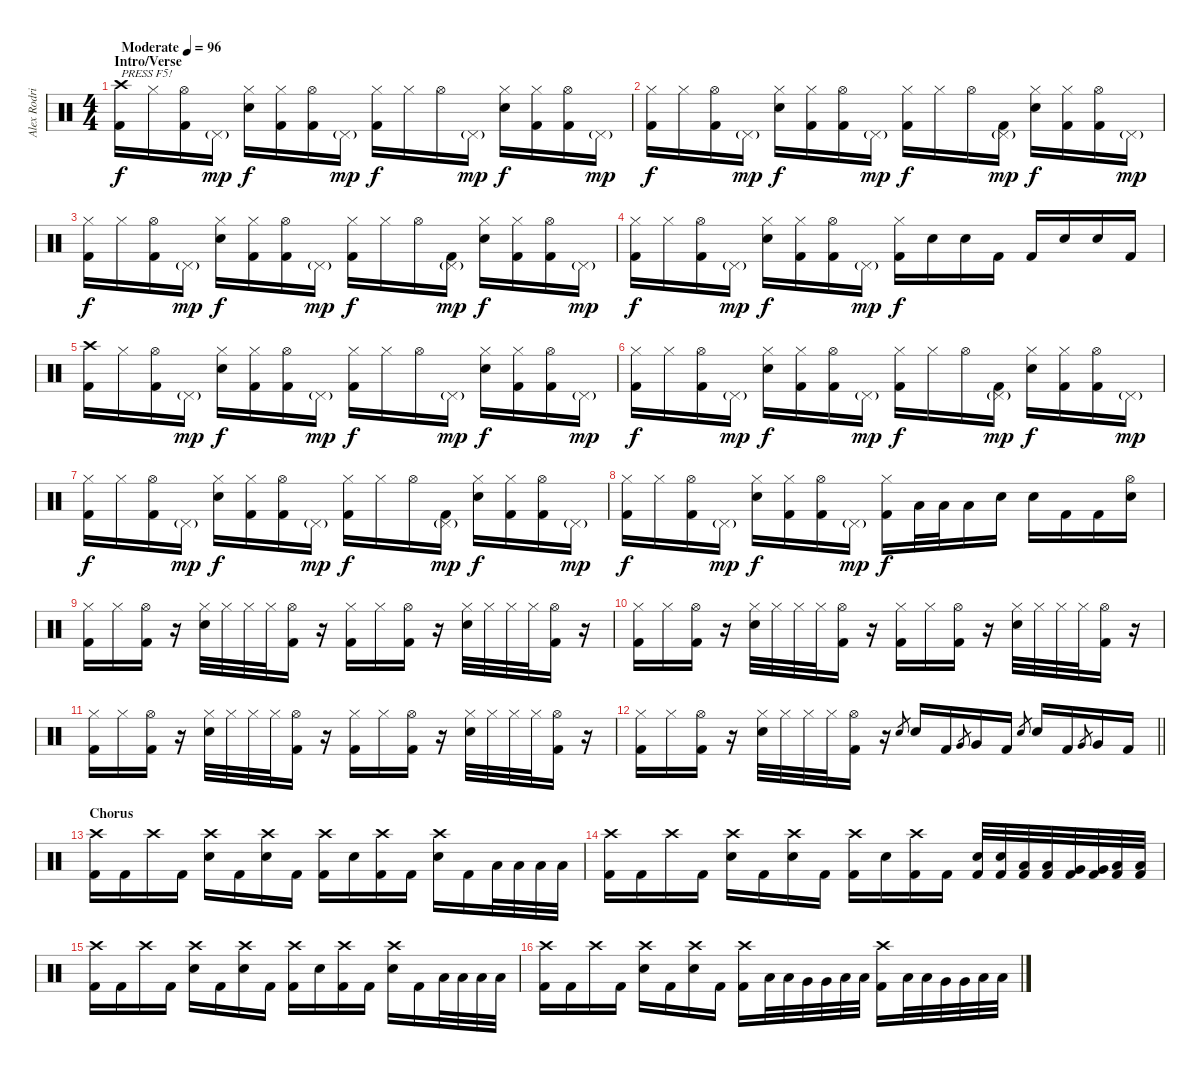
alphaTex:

\track ("Alex Rodriguez" "Alex Rodri") {instrument percussion}
\staff {score}
\articulation defaults
\ts (4 4)
\section ("" "Intro/Verse")
\tempo (96 "Moderate")
\clef neutral
\ks c
("Crash high (hit)" "Kick (hit) 2").16{txt "PRESS F5!" dy f} "Hi-Hat (closed)".16 ("Hi-Hat (open)" "Kick (hit) 2").16 "Pedal Hi-Hat (hit)"{g}.16{dy mp} ("Hi-Hat (closed)" "Electric Snare (hit)").16{dy f} ("Hi-Hat (closed)" "Kick (hit) 2").16 ("Hi-Hat (open)" "Kick (hit) 2").16 "Pedal Hi-Hat (hit)"{g}.16{dy mp} ("Hi-Hat (closed)" "Kick (hit) 2").16{dy f} "Hi-Hat (closed)".16 "Hi-Hat (open)".16 "Pedal Hi-Hat (hit)"{g}.16{dy mp} ("Hi-Hat (closed)" "Electric Snare (hit)").16{dy f} ("Hi-Hat (closed)" "Kick (hit) 2").16 ("Hi-Hat (open)" "Kick (hit) 2").16 "Pedal Hi-Hat (hit)"{g}.16{dy mp} |
("Hi-Hat (closed)" "Kick (hit) 2").16{dy f} "Hi-Hat (closed)".16 ("Hi-Hat (open)" "Kick (hit) 2").16 "Pedal Hi-Hat (hit)"{g}.16{dy mp} ("Hi-Hat (closed)" "Electric Snare (hit)").16{dy f} ("Hi-Hat (closed)" "Kick (hit) 2").16 ("Hi-Hat (open)" "Kick (hit) 2").16 "Pedal Hi-Hat (hit)"{g}.16{dy mp} ("Hi-Hat (closed)" "Kick (hit) 2").16{dy f} "Hi-Hat (closed)".16 "Hi-Hat (open)".16 ("Pedal Hi-Hat (hit)"{g} "Kick (hit) 2").16{dy mp} ("Hi-Hat (closed)" "Electric Snare (hit)").16{dy f} ("Hi-Hat (closed)" "Kick (hit) 2").16 ("Hi-Hat (open)" "Kick (hit) 2").16 "Pedal Hi-Hat (hit)"{g}.16{dy mp} |
("Hi-Hat (closed)" "Kick (hit) 2").16{dy f} "Hi-Hat (closed)".16 ("Hi-Hat (open)" "Kick (hit) 2").16 "Pedal Hi-Hat (hit)"{g}.16{dy mp} ("Hi-Hat (closed)" "Electric Snare (hit)").16{dy f} ("Hi-Hat (closed)" "Kick (hit) 2").16 ("Hi-Hat (open)" "Kick (hit) 2").16 "Pedal Hi-Hat (hit)"{g}.16{dy mp} ("Hi-Hat (closed)" "Kick (hit) 2").16{dy f} "Hi-Hat (closed)".16 "Hi-Hat (open)".16 ("Pedal Hi-Hat (hit)"{g} "Kick (hit) 2").16{dy mp} ("Hi-Hat (closed)" "Electric Snare (hit)").16{dy f} ("Hi-Hat (closed)" "Kick (hit) 2").16 ("Hi-Hat (open)" "Kick (hit) 2").16 "Pedal Hi-Hat (hit)"{g}.16{dy mp} |
("Hi-Hat (closed)" "Kick (hit) 2").16{dy f} "Hi-Hat (closed)".16 ("Hi-Hat (open)" "Kick (hit) 2").16 "Pedal Hi-Hat (hit)"{g}.16{dy mp} ("Hi-Hat (closed)" "Electric Snare (hit)").16{dy f} ("Hi-Hat (closed)" "Kick (hit) 2").16 ("Hi-Hat (open)" "Kick (hit) 2").16 "Pedal Hi-Hat (hit)"{g}.16{dy mp} ("Hi-Hat (closed)" "Kick (hit) 2").16{dy f} "Electric Snare (hit)".16 "Electric Snare (hit)".16 "Kick (hit) 2".16 "Kick (hit) 2".16 "Electric Snare (hit)".16 "Electric Snare (hit)".16 "Kick (hit) 2".16 |
("Crash high (hit)" "Kick (hit) 2").16 "Hi-Hat (closed)".16 ("Hi-Hat (open)" "Kick (hit) 2").16 "Pedal Hi-Hat (hit)"{g}.16{dy mp} ("Hi-Hat (closed)" "Electric Snare (hit)").16{dy f} ("Hi-Hat (closed)" "Kick (hit) 2").16 ("Hi-Hat (open)" "Kick (hit) 2").16 "Pedal Hi-Hat (hit)"{g}.16{dy mp} ("Hi-Hat (closed)" "Kick (hit) 2").16{dy f} "Hi-Hat (closed)".16 "Hi-Hat (open)".16 "Pedal Hi-Hat (hit)"{g}.16{dy mp} ("Hi-Hat (closed)" "Electric Snare (hit)").16{dy f} ("Hi-Hat (closed)" "Kick (hit) 2").16 ("Hi-Hat (open)" "Kick (hit) 2").16 "Pedal Hi-Hat (hit)"{g}.16{dy mp} |
("Hi-Hat (closed)" "Kick (hit) 2").16{dy f} "Hi-Hat (closed)".16 ("Hi-Hat (open)" "Kick (hit) 2").16 "Pedal Hi-Hat (hit)"{g}.16{dy mp} ("Hi-Hat (closed)" "Electric Snare (hit)").16{dy f} ("Hi-Hat (closed)" "Kick (hit) 2").16 ("Hi-Hat (open)" "Kick (hit) 2").16 "Pedal Hi-Hat (hit)"{g}.16{dy mp} ("Hi-Hat (closed)" "Kick (hit) 2").16{dy f} "Hi-Hat (closed)".16 "Hi-Hat (open)".16 ("Pedal Hi-Hat (hit)"{g} "Kick (hit) 2").16{dy mp} ("Hi-Hat (closed)" "Electric Snare (hit)").16{dy f} ("Hi-Hat (closed)" "Kick (hit) 2").16 ("Hi-Hat (open)" "Kick (hit) 2").16 "Pedal Hi-Hat (hit)"{g}.16{dy mp} |
("Hi-Hat (closed)" "Kick (hit) 2").16{dy f} "Hi-Hat (closed)".16 ("Hi-Hat (open)" "Kick (hit) 2").16 "Pedal Hi-Hat (hit)"{g}.16{dy mp} ("Hi-Hat (closed)" "Electric Snare (hit)").16{dy f} ("Hi-Hat (closed)" "Kick (hit) 2").16 ("Hi-Hat (open)" "Kick (hit) 2").16 "Pedal Hi-Hat (hit)"{g}.16{dy mp} ("Hi-Hat (closed)" "Kick (hit) 2").16{dy f} "Hi-Hat (closed)".16 "Hi-Hat (open)".16 ("Pedal Hi-Hat (hit)"{g} "Kick (hit) 2").16{dy mp} ("Hi-Hat (closed)" "Electric Snare (hit)").16{dy f} ("Hi-Hat (closed)" "Kick (hit) 2").16 ("Hi-Hat (open)" "Kick (hit) 2").16 "Pedal Hi-Hat (hit)"{g}.16{dy mp} |
("Hi-Hat (closed)" "Kick (hit) 2").16{dy f} "Hi-Hat (closed)".16 ("Hi-Hat (open)" "Kick (hit) 2").16 "Pedal Hi-Hat (hit)"{g}.16{dy mp} ("Hi-Hat (closed)" "Electric Snare (hit)").16{dy f} ("Hi-Hat (closed)" "Kick (hit) 2").16 ("Hi-Hat (open)" "Kick (hit) 2").16 "Pedal Hi-Hat (hit)"{g}.16{dy mp} ("Hi-Hat (closed)" "Kick (hit) 2").16{dy f} "Low Tom (hit)".32 "Low Tom (hit)".32 "Low Tom (hit)".16 "Electric Snare (hit)".16 "Electric Snare (hit)".16 "Kick (hit) 2".16 "Kick (hit) 2".16 ("Hi-Hat (open)" "Electric Snare (hit)").16 |
("Hi-Hat (closed)" "Kick (hit) 2").16 "Hi-Hat (closed)".16 ("Hi-Hat (open)" "Kick (hit) 2").16 r.16 ("Hi-Hat (closed)" "Electric Snare (hit)").32 "Hi-Hat (closed)".32 "Hi-Hat (closed)".32 "Hi-Hat (closed)".32 ("Hi-Hat (open)" "Kick (hit) 2").16 r.16 ("Hi-Hat (closed)" "Kick (hit) 2").16 "Hi-Hat (closed)".16 ("Hi-Hat (open)" "Kick (hit) 2").16 r.16 ("Hi-Hat (closed)" "Electric Snare (hit)").32 "Hi-Hat (closed)".32 "Hi-Hat (closed)".32 "Hi-Hat (closed)".32 ("Hi-Hat (open)" "Kick (hit) 2").16 r.16 |
("Hi-Hat (closed)" "Kick (hit) 2").16 "Hi-Hat (closed)".16 ("Hi-Hat (open)" "Kick (hit) 2").16 r.16 ("Hi-Hat (closed)" "Electric Snare (hit)").32 "Hi-Hat (closed)".32 "Hi-Hat (closed)".32 "Hi-Hat (closed)".32 ("Hi-Hat (open)" "Kick (hit) 2").16 r.16 ("Hi-Hat (closed)" "Kick (hit) 2").16 "Hi-Hat (closed)".16 ("Hi-Hat (open)" "Kick (hit) 2").16 r.16 ("Hi-Hat (closed)" "Electric Snare (hit)").32 "Hi-Hat (closed)".32 "Hi-Hat (closed)".32 "Hi-Hat (closed)".32 ("Hi-Hat (open)" "Kick (hit) 2").16 r.16 |
("Hi-Hat (closed)" "Kick (hit) 2").16 "Hi-Hat (closed)".16 ("Hi-Hat (open)" "Kick (hit) 2").16 r.16 ("Hi-Hat (closed)" "Electric Snare (hit)").32 "Hi-Hat (closed)".32 "Hi-Hat (closed)".32 "Hi-Hat (closed)".32 ("Hi-Hat (open)" "Kick (hit) 2").16 r.16 ("Hi-Hat (closed)" "Kick (hit) 2").16 "Hi-Hat (closed)".16 ("Hi-Hat (open)" "Kick (hit) 2").16 r.16 ("Hi-Hat (closed)" "Electric Snare (hit)").32 "Hi-Hat (closed)".32 "Hi-Hat (closed)".32 "Hi-Hat (closed)".32 ("Hi-Hat (open)" "Kick (hit) 2").16 r.16 |
\barLineRight lightlight
("Hi-Hat (closed)" "Kick (hit) 2").16 "Hi-Hat (closed)".16 ("Hi-Hat (open)" "Kick (hit) 2").16 r.16 ("Hi-Hat (closed)" "Electric Snare (hit)").32 "Hi-Hat (closed)".32 "Hi-Hat (closed)".32 "Hi-Hat (closed)".32 ("Hi-Hat (open)" "Kick (hit) 2").16 r.16 "Electric Snare (hit)".8{gr} "Electric Snare (hit)".16 "Kick (hit) 2".16 "Very Low Tom (hit)".8{gr} "Very Low Tom (hit)".16 "Kick (hit) 2".16 "Electric Snare (hit)".8{gr} "Electric Snare (hit)".16 "Kick (hit) 2".16 "Very Low Tom (hit)".8{gr} "Very Low Tom (hit)".16 "Kick (hit) 2".16 |
\section ("" "Chorus")
("Crash high (hit)" "Kick (hit) 2").16 "Kick (hit) 2".16 "Crash high (hit)".16 "Kick (hit) 2".16 ("Crash high (hit)" "Electric Snare (hit)").16 "Kick (hit) 2".16 ("Crash high (hit)" "Electric Snare (hit)").16 "Kick (hit) 2".16 ("Crash high (hit)" "Kick (hit) 2").16 "Electric Snare (hit)".16 ("Crash high (hit)" "Kick (hit) 2").16 "Kick (hit) 2".16 ("Crash high (hit)" "Electric Snare (hit)").16 "Kick (hit) 2".16 "Low Floor Tom (hit)".32 "Low Floor Tom (hit)".32 "Low Floor Tom (hit)".32 "Low Floor Tom (hit)".32 |
("Crash high (hit)" "Kick (hit) 2").16 "Kick (hit) 2".16 "Crash high (hit)".16 "Kick (hit) 2".16 ("Crash high (hit)" "Electric Snare (hit)").16 "Kick (hit) 2".16 ("Crash high (hit)" "Electric Snare (hit)").16 "Kick (hit) 2".16 ("Crash high (hit)" "Kick (hit) 2").16 "Electric Snare (hit)".16 ("Crash high (hit)" "Kick (hit) 2").16 "Kick (hit) 2".16 ("Electric Snare (hit)" "Kick (hit) 2").32 ("Electric Snare (hit)" "Kick (hit) 2").32 ("Low Tom (hit)" "Kick (hit) 2").32 ("Low Tom (hit)" "Kick (hit) 2").32 ("Very Low Tom (hit)" "Kick (hit) 2").32 ("Very Low Tom (hit)" "Kick (hit) 2").32 ("Low Floor Tom (hit)" "Kick (hit) 2").32 ("Low Floor Tom (hit)" "Kick (hit) 2").32 |
("Crash high (hit)" "Kick (hit) 2").16 "Kick (hit) 2".16 "Crash high (hit)".16 "Kick (hit) 2".16 ("Crash high (hit)" "Electric Snare (hit)").16 "Kick (hit) 2".16 ("Crash high (hit)" "Electric Snare (hit)").16 "Kick (hit) 2".16 ("Crash high (hit)" "Kick (hit) 2").16 "Electric Snare (hit)".16 ("Crash high (hit)" "Kick (hit) 2").16 "Kick (hit) 2".16 ("Crash high (hit)" "Electric Snare (hit)").16 "Kick (hit) 2".16 "Low Floor Tom (hit)".32 "Low Floor Tom (hit)".32 "Low Floor Tom (hit)".32 "Low Floor Tom (hit)".32 |
("Crash high (hit)" "Kick (hit) 2").16 "Kick (hit) 2".16 "Crash high (hit)".16 "Kick (hit) 2".16 ("Crash high (hit)" "Electric Snare (hit)").16 "Kick (hit) 2".16 ("Crash high (hit)" "Electric Snare (hit)").16 "Kick (hit) 2".16 ("Crash high (hit)" "Kick (hit) 2").16 "Low Tom (hit)".32 "Low Tom (hit)".32 "Very Low Tom (hit)".32 "Very Low Tom (hit)".32 "Low Floor Tom (hit)".32 "Low Floor Tom (hit)".32 ("Crash high (hit)" "Kick (hit) 2").16 "Low Tom (hit)".32 "Low Tom (hit)".32 "Very Low Tom (hit)".32 "Very Low Tom (hit)".32 "Low Floor Tom (hit)".32 "Low Floor Tom (hit)".32
